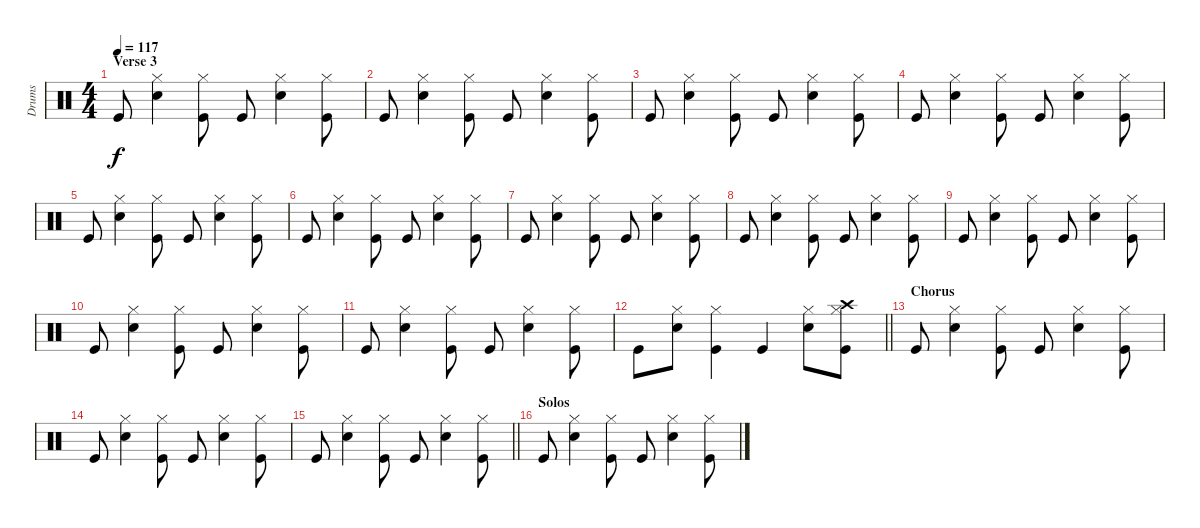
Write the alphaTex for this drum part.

\track ("Drums" "Drums") {instrument percussion}
\staff {score}
\articulation defaults
\ts (4 4)
\section ("" "Verse 3")
\tempo 117
\clef neutral
\ks c "Kick (hit)".8{dy f}
("Electric Snare (hit)" "Hi-Hat (closed)").4 ("Kick (hit)" "Hi-Hat (closed)").8 "Kick (hit)".8 ("Electric Snare (hit)" "Hi-Hat (closed)").4 ("Kick (hit)" "Hi-Hat (closed)").8 |
"Kick (hit)".8 ("Electric Snare (hit)" "Hi-Hat (closed)").4 ("Kick (hit)" "Hi-Hat (closed)").8 "Kick (hit)".8 ("Electric Snare (hit)" "Hi-Hat (closed)").4 ("Kick (hit)" "Hi-Hat (closed)").8 |
"Kick (hit)".8 ("Electric Snare (hit)" "Hi-Hat (closed)").4 ("Kick (hit)" "Hi-Hat (closed)").8 "Kick (hit)".8 ("Electric Snare (hit)" "Hi-Hat (closed)").4 ("Kick (hit)" "Hi-Hat (closed)").8 |
"Kick (hit)".8 ("Electric Snare (hit)" "Hi-Hat (closed)").4 ("Kick (hit)" "Hi-Hat (closed)").8 "Kick (hit)".8 ("Electric Snare (hit)" "Hi-Hat (closed)").4 ("Kick (hit)" "Hi-Hat (closed)").8 |
"Kick (hit)".8 ("Electric Snare (hit)" "Hi-Hat (closed)").4 ("Kick (hit)" "Hi-Hat (closed)").8 "Kick (hit)".8 ("Electric Snare (hit)" "Hi-Hat (closed)").4 ("Kick (hit)" "Hi-Hat (closed)").8 |
"Kick (hit)".8 ("Electric Snare (hit)" "Hi-Hat (closed)").4 ("Kick (hit)" "Hi-Hat (closed)").8 "Kick (hit)".8 ("Electric Snare (hit)" "Hi-Hat (closed)").4 ("Kick (hit)" "Hi-Hat (closed)").8 |
"Kick (hit)".8 ("Electric Snare (hit)" "Hi-Hat (closed)").4 ("Kick (hit)" "Hi-Hat (closed)").8 "Kick (hit)".8 ("Electric Snare (hit)" "Hi-Hat (closed)").4 ("Kick (hit)" "Hi-Hat (closed)").8 |
"Kick (hit)".8 ("Electric Snare (hit)" "Hi-Hat (closed)").4 ("Kick (hit)" "Hi-Hat (closed)").8 "Kick (hit)".8 ("Electric Snare (hit)" "Hi-Hat (closed)").4 ("Kick (hit)" "Hi-Hat (closed)").8 |
"Kick (hit)".8 ("Electric Snare (hit)" "Hi-Hat (closed)").4 ("Kick (hit)" "Hi-Hat (closed)").8 "Kick (hit)".8 ("Electric Snare (hit)" "Hi-Hat (closed)").4 ("Kick (hit)" "Hi-Hat (closed)").8 |
"Kick (hit)".8 ("Electric Snare (hit)" "Hi-Hat (closed)").4 ("Kick (hit)" "Hi-Hat (closed)").8 "Kick (hit)".8 ("Electric Snare (hit)" "Hi-Hat (closed)").4 ("Kick (hit)" "Hi-Hat (closed)").8 |
"Kick (hit)".8 ("Electric Snare (hit)" "Hi-Hat (closed)").4 ("Kick (hit)" "Hi-Hat (closed)").8 "Kick (hit)".8 ("Electric Snare (hit)" "Hi-Hat (closed)").4 ("Kick (hit)" "Hi-Hat (closed)").8 |
\barLineRight lightlight "Kick (hit)".8
("Electric Snare (hit)" "Hi-Hat (closed)").8 ("Kick (hit)" "Hi-Hat (closed)").4 "Kick (hit)".4 ("Electric Snare (hit)" "Hi-Hat (closed)").8 ("Crash high (hit)" "Kick (hit)" "Hi-Hat (closed)").8 |
\section ("" "Chorus")
"Kick (hit)".8 ("Electric Snare (hit)" "Hi-Hat (closed)").4 ("Kick (hit)" "Hi-Hat (closed)").8 "Kick (hit)".8 ("Electric Snare (hit)" "Hi-Hat (closed)").4 ("Kick (hit)" "Hi-Hat (closed)").8 |
"Kick (hit)".8 ("Electric Snare (hit)" "Hi-Hat (closed)").4 ("Kick (hit)" "Hi-Hat (closed)").8 "Kick (hit)".8 ("Electric Snare (hit)" "Hi-Hat (closed)").4 ("Kick (hit)" "Hi-Hat (closed)").8 |
\barLineRight lightlight "Kick (hit)".8
("Electric Snare (hit)" "Hi-Hat (closed)").4 ("Kick (hit)" "Hi-Hat (closed)").8 "Kick (hit)".8 ("Electric Snare (hit)" "Hi-Hat (closed)").4 ("Kick (hit)" "Hi-Hat (closed)").8 |
\section ("" "Solos")
"Kick (hit)".8 ("Electric Snare (hit)" "Hi-Hat (closed)").4 ("Kick (hit)" "Hi-Hat (closed)").8 "Kick (hit)".8 ("Electric Snare (hit)" "Hi-Hat (closed)").4 ("Kick (hit)" "Hi-Hat (closed)").8
